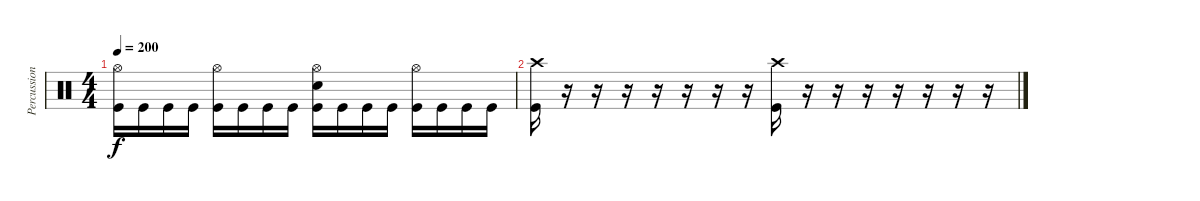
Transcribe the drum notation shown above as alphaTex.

\track ("Percussion" "Percussion") {instrument percussion}
\staff {score}
\articulation defaults
\ts (4 4)
\tempo 200
\clef neutral
\ks c
("Hi-Hat (open)" "Kick (hit)").16{dy f} "Kick (hit)".16 "Kick (hit)".16 "Kick (hit)".16 ("Hi-Hat (open)" "Kick (hit)").16 "Kick (hit)".16 "Kick (hit)".16 "Kick (hit)".16 ("Hi-Hat (open)" "Electric Snare (hit)" "Kick (hit)").16 "Kick (hit)".16 "Kick (hit)".16 "Kick (hit)".16 ("Hi-Hat (open)" "Kick (hit)").16 "Kick (hit)".16 "Kick (hit)".16 "Kick (hit)".16 |
("Crash high (hit)" "Kick (hit)").16 r.16 r.16 r.16 r.16 r.16 r.16 r.16 ("Crash high (hit)" "Kick (hit)").16 r.16 r.16 r.16 r.16 r.16 r.16 r.16
